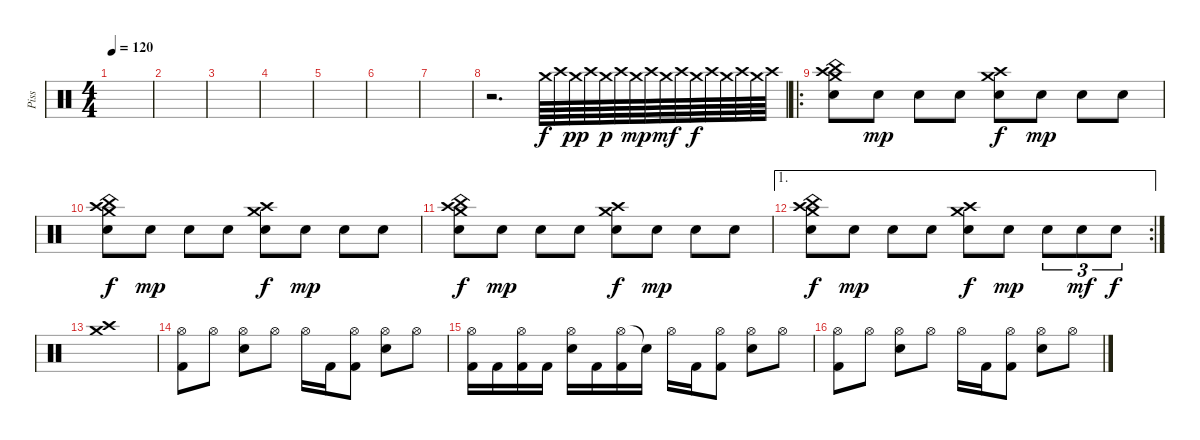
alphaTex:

\track ("Piss" "Piss") {instrument percussion}
\staff {score}
\articulation defaults
\ts (4 4)
\tempo 120
\clef neutral
\ks c
|
|
|
|
|
|
|
r.2{d} "Crash medium (hit)".64 "Crash high (hit)".64 "Crash medium (hit)".64{dy pp} "Crash high (hit)".64 "Crash medium (hit)".64{dy p} "Crash high (hit)".64 "Crash medium (hit)".64{dy mp} "Crash high (hit)".64 "Crash medium (hit)".64{dy mf} "Crash high (hit)".64 "Crash medium (hit)".64{dy f} "Crash high (hit)".64 "Crash medium (hit)".64 "Crash high (hit)".64 "Crash medium (hit)".64 "Crash high (hit)".64 |
\ro
("Crash medium (hit)" "Crash high (hit)" "Electric Snare (hit)" "China (hit)").8 "Electric Snare (hit)".8{dy mp} "Electric Snare (hit)".8 "Electric Snare (hit)".8 ("Crash high (hit)" "Crash medium (hit)" "Electric Snare (hit)").8{dy f} "Electric Snare (hit)".8{dy mp} "Electric Snare (hit)".8 "Electric Snare (hit)".8 |
("Crash medium (hit)" "Crash high (hit)" "Electric Snare (hit)" "China (hit)").8{dy f} "Electric Snare (hit)".8{dy mp} "Electric Snare (hit)".8 "Electric Snare (hit)".8 ("Crash high (hit)" "Crash medium (hit)" "Electric Snare (hit)").8{dy f} "Electric Snare (hit)".8{dy mp} "Electric Snare (hit)".8 "Electric Snare (hit)".8 |
("Crash medium (hit)" "Crash high (hit)" "Electric Snare (hit)" "China (hit)").8{dy f} "Electric Snare (hit)".8{dy mp} "Electric Snare (hit)".8 "Electric Snare (hit)".8 ("Crash high (hit)" "Crash medium (hit)" "Electric Snare (hit)").8{dy f} "Electric Snare (hit)".8{dy mp} "Electric Snare (hit)".8 "Electric Snare (hit)".8 |
\ae 1
\rc 2
("Crash medium (hit)" "Crash high (hit)" "Electric Snare (hit)" "China (hit)").8{dy f} "Electric Snare (hit)".8{dy mp} "Electric Snare (hit)".8 "Electric Snare (hit)".8 ("Crash high (hit)" "Crash medium (hit)" "Electric Snare (hit)").8{dy f} "Electric Snare (hit)".8{dy mp} "Electric Snare (hit)".8{tu (3 2)} "Electric Snare (hit)".8{tu (3 2) dy mf} "Electric Snare (hit)".8{tu (3 2) dy f} |
("Crash medium (hit)" "Crash high (hit)").1 |
("Hi-Hat (open)" "Kick (hit) 2").8 "Hi-Hat (open)".8 ("Hi-Hat (open)" "Electric Snare (hit)").8 "Hi-Hat (open)".8 "Hi-Hat (open)".16 "Kick (hit) 2".16 ("Hi-Hat (open)" "Kick (hit) 2").8 ("Hi-Hat (open)" "Electric Snare (hit)").8 "Hi-Hat (open)".8 |
("Hi-Hat (open)" "Kick (hit) 2").16 "Kick (hit) 2".16 ("Hi-Hat (open)" "Kick (hit) 2").16 "Kick (hit) 2".16 ("Hi-Hat (open)" "Electric Snare (hit)").16 "Kick (hit) 2".16 ("Hi-Hat (open)" "Kick (hit) 2").16 "Snare (hit)"{t}.16 "Hi-Hat (open)".16 "Kick (hit) 2".16 ("Hi-Hat (open)" "Kick (hit) 2").8 ("Hi-Hat (open)" "Electric Snare (hit)").8 "Hi-Hat (open)".8 |
("Hi-Hat (open)" "Kick (hit) 2").8 "Hi-Hat (open)".8 ("Hi-Hat (open)" "Electric Snare (hit)").8 "Hi-Hat (open)".8 "Hi-Hat (open)".16 "Kick (hit) 2".16 ("Hi-Hat (open)" "Kick (hit) 2").8 ("Hi-Hat (open)" "Electric Snare (hit)").8 "Hi-Hat (open)".8
